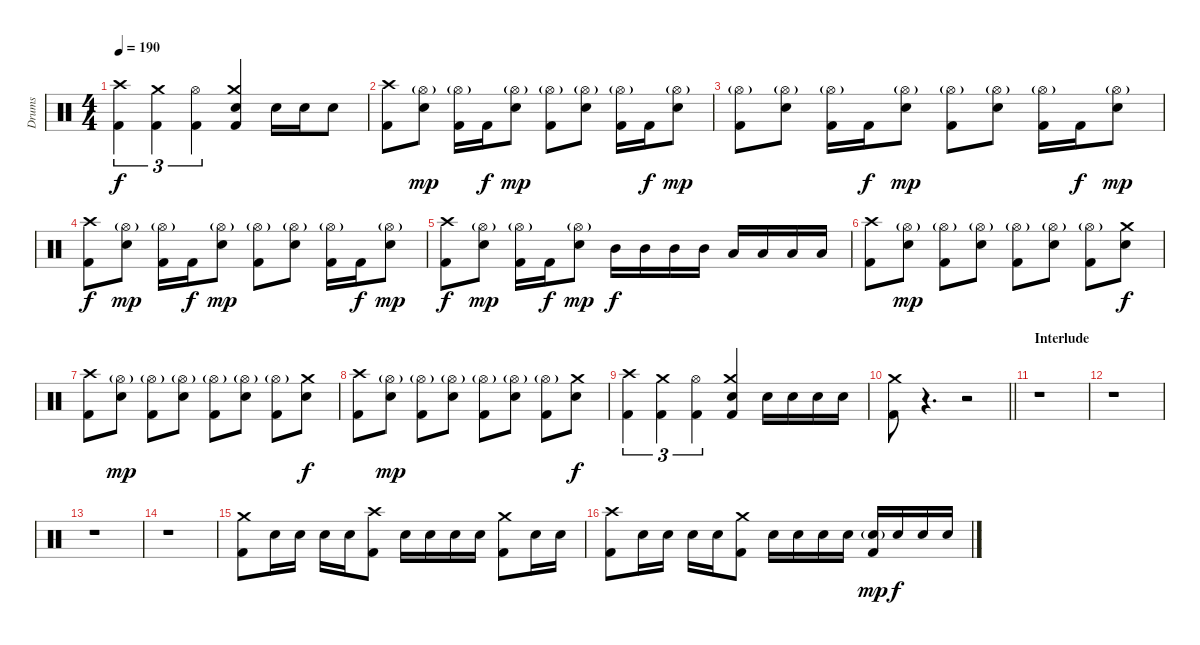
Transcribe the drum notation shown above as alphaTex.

\track ("Drums" "Drums") {instrument percussion}
\staff {score}
\articulation defaults
\ts (4 4)
\tempo 190
\clef neutral
\ks c
("Crash high (hit)" "Kick (hit) 2").4{tu (3 2) dy f} ("Crash medium (hit)" "Kick (hit) 2").4{tu (3 2)} ("Hi-Hat (open)" "Kick (hit) 2").4{tu (3 2)} ("Crash medium (hit)" "Electric Snare (hit)" "Kick (hit) 2").4 "Electric Snare (hit)".16 "Electric Snare (hit)".16 "Electric Snare (hit)".8 |
("Crash high (hit)" "Kick (hit) 2").8 ("Hi-Hat (open)"{g} "Electric Snare (hit)").8{dy mp} ("Hi-Hat (open)"{g} "Kick (hit) 2").16 "Kick (hit) 2".16{dy f} ("Hi-Hat (open)"{g} "Electric Snare (hit)").8{dy mp} ("Hi-Hat (open)"{g} "Kick (hit) 2").8 ("Hi-Hat (open)"{g} "Electric Snare (hit)").8 ("Hi-Hat (open)"{g} "Kick (hit) 2").16 "Kick (hit) 2".16{dy f} ("Hi-Hat (open)"{g} "Electric Snare (hit)").8{dy mp} |
("Hi-Hat (open)"{g} "Kick (hit) 2").8 ("Hi-Hat (open)"{g} "Electric Snare (hit)").8 ("Hi-Hat (open)"{g} "Kick (hit) 2").16 "Kick (hit) 2".16{dy f} ("Hi-Hat (open)"{g} "Electric Snare (hit)").8{dy mp} ("Hi-Hat (open)"{g} "Kick (hit) 2").8 ("Hi-Hat (open)"{g} "Electric Snare (hit)").8 ("Hi-Hat (open)"{g} "Kick (hit) 2").16 "Kick (hit) 2".16{dy f} ("Hi-Hat (open)"{g} "Electric Snare (hit)").8{dy mp} |
("Crash high (hit)" "Kick (hit) 2").8{dy f} ("Hi-Hat (open)"{g} "Electric Snare (hit)").8{dy mp} ("Hi-Hat (open)"{g} "Kick (hit) 2").16 "Kick (hit) 2".16{dy f} ("Hi-Hat (open)"{g} "Electric Snare (hit)").8{dy mp} ("Hi-Hat (open)"{g} "Kick (hit) 2").8 ("Hi-Hat (open)"{g} "Electric Snare (hit)").8 ("Hi-Hat (open)"{g} "Kick (hit) 2").16 "Kick (hit) 2".16{dy f} ("Hi-Hat (open)"{g} "Electric Snare (hit)").8{dy mp} |
("Crash high (hit)" "Kick (hit) 2").8{dy f} ("Hi-Hat (open)"{g} "Electric Snare (hit)").8{dy mp} ("Hi-Hat (open)"{g} "Kick (hit) 2").16 "Kick (hit) 2".16{dy f} ("Hi-Hat (open)"{g} "Electric Snare (hit)").8{dy mp} "Mid Tom (hit)".16{dy f} "Mid Tom (hit)".16 "Mid Tom (hit)".16 "Mid Tom (hit)".16 "Low Tom (hit)".16 "Low Tom (hit)".16 "Low Tom (hit)".16 "Low Tom (hit)".16 |
("Crash high (hit)" "Kick (hit) 2").8 ("Hi-Hat (open)"{g} "Electric Snare (hit)").8{dy mp} ("Hi-Hat (open)"{g} "Kick (hit) 2").8 ("Hi-Hat (open)"{g} "Electric Snare (hit)").8 ("Hi-Hat (open)"{g} "Kick (hit) 2").8 ("Hi-Hat (open)"{g} "Electric Snare (hit)").8 ("Hi-Hat (open)"{g} "Kick (hit) 2").8 ("Crash medium (hit)" "Electric Snare (hit)").8{dy f} |
("Crash high (hit)" "Kick (hit) 2").8 ("Hi-Hat (open)"{g} "Electric Snare (hit)").8{dy mp} ("Hi-Hat (open)"{g} "Kick (hit) 2").8 ("Hi-Hat (open)"{g} "Electric Snare (hit)").8 ("Hi-Hat (open)"{g} "Kick (hit) 2").8 ("Hi-Hat (open)"{g} "Electric Snare (hit)").8 ("Hi-Hat (open)"{g} "Kick (hit) 2").8 ("Crash medium (hit)" "Electric Snare (hit)").8{dy f} |
("Crash high (hit)" "Kick (hit) 2").8 ("Hi-Hat (open)"{g} "Electric Snare (hit)").8{dy mp} ("Hi-Hat (open)"{g} "Kick (hit) 2").8 ("Hi-Hat (open)"{g} "Electric Snare (hit)").8 ("Hi-Hat (open)"{g} "Kick (hit) 2").8 ("Hi-Hat (open)"{g} "Electric Snare (hit)").8 ("Hi-Hat (open)"{g} "Kick (hit) 2").8 ("Crash medium (hit)" "Electric Snare (hit)").8{dy f} |
("Crash high (hit)" "Kick (hit) 2").4{tu (3 2)} ("Crash medium (hit)" "Kick (hit) 2").4{tu (3 2)} ("Hi-Hat (open)" "Kick (hit) 2").4{tu (3 2)} ("Crash medium (hit)" "Electric Snare (hit)" "Kick (hit) 2").4 "Electric Snare (hit)".16 "Electric Snare (hit)".16 "Electric Snare (hit)".16 "Electric Snare (hit)".16 |
\barLineRight lightlight
("Crash medium (hit)" "Kick (hit) 2").8 r.4{d} r.2 |
\section ("" "Interlude")
r.1 |
r.1 |
r.1 |
r.1 |
("Crash medium (hit)" "Kick (hit) 2").8 "Electric Snare (hit)".16 "Electric Snare (hit)".16 "Electric Snare (hit)".16 "Electric Snare (hit)".16 ("Crash high (hit)" "Kick (hit) 2").8 "Electric Snare (hit)".16 "Electric Snare (hit)".16 "Electric Snare (hit)".16 "Electric Snare (hit)".16 ("Crash medium (hit)" "Kick (hit) 2").8 "Electric Snare (hit)".16 "Electric Snare (hit)".16 |
("Crash high (hit)" "Kick (hit) 2").8 "Electric Snare (hit)".16 "Electric Snare (hit)".16 "Electric Snare (hit)".16 "Electric Snare (hit)".16 ("Crash medium (hit)" "Kick (hit) 2").8 "Electric Snare (hit)".16 "Electric Snare (hit)".16 "Electric Snare (hit)".16 "Electric Snare (hit)".16 ("Electric Snare (hit)"{g} "Kick (hit) 2").16{dy mp} "Electric Snare (hit)".16{dy f} "Electric Snare (hit)".16 "Electric Snare (hit)".16
